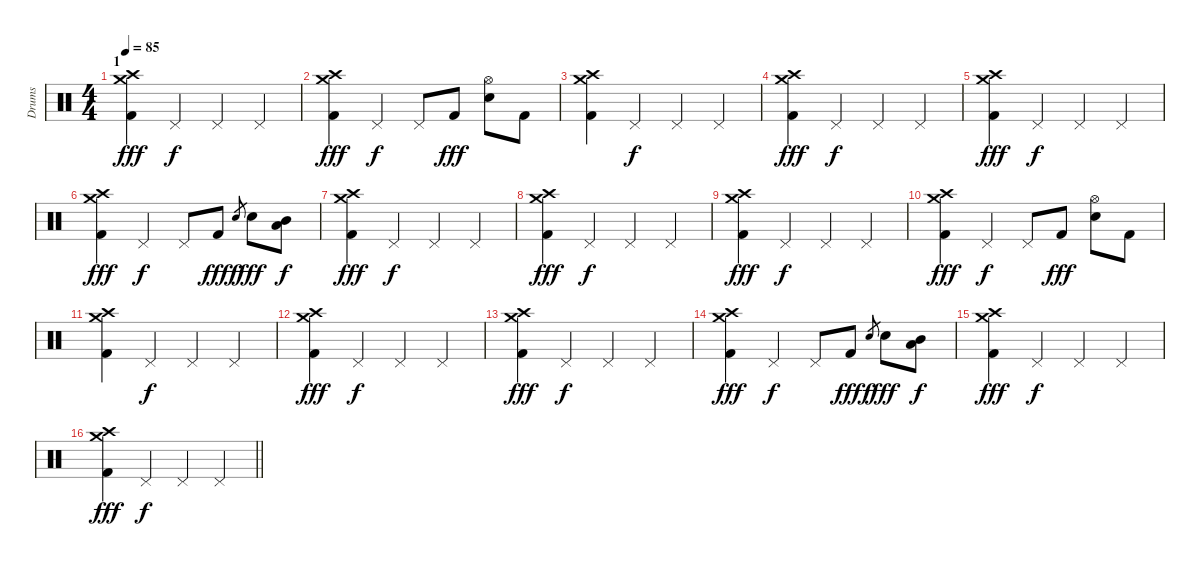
\track ("Drums" "Drums") {instrument percussion}
\staff {score}
\articulation defaults
\ts (4 4)
\section ("" "1")
\tempo 85
\clef neutral
\ks c
("Crash high (hit)" "Crash medium (hit)" "Kick (hit) 2").4{dy fff} "Pedal Hi-Hat (hit)".4{dy f} "Pedal Hi-Hat (hit)".4 "Pedal Hi-Hat (hit)".4 |
("Crash high (hit)" "Crash medium (hit)" "Kick (hit) 2").4{dy fff} "Pedal Hi-Hat (hit)".4{dy f} "Pedal Hi-Hat (hit)".8 "Kick (hit) 2".8{dy fff} ("Hi-Hat (open)" "Snare (hit) 2").8 "Kick (hit) 2".8 |
("Crash high (hit)" "Crash medium (hit)" "Kick (hit) 2").4 "Pedal Hi-Hat (hit)".4{dy f} "Pedal Hi-Hat (hit)".4 "Pedal Hi-Hat (hit)".4 |
("Crash high (hit)" "Crash medium (hit)" "Kick (hit) 2").4{dy fff} "Pedal Hi-Hat (hit)".4{dy f} "Pedal Hi-Hat (hit)".4 "Pedal Hi-Hat (hit)".4 |
("Crash high (hit)" "Crash medium (hit)" "Kick (hit) 2").4{dy fff} "Pedal Hi-Hat (hit)".4{dy f} "Pedal Hi-Hat (hit)".4 "Pedal Hi-Hat (hit)".4 |
("Crash high (hit)" "Crash medium (hit)" "Kick (hit) 2").4{dy fff} "Pedal Hi-Hat (hit)".4{dy f} "Pedal Hi-Hat (hit)".8 "Kick (hit) 2".8{dy fff} "Snare (hit) 2".8{gr dy f} "Snare (hit) 2".8{dy fff} ("Mid Tom (hit)" "Low Floor Tom (hit)").8{dy f} |
("Crash high (hit)" "Crash medium (hit)" "Kick (hit) 2").4{dy fff} "Pedal Hi-Hat (hit)".4{dy f} "Pedal Hi-Hat (hit)".4 "Pedal Hi-Hat (hit)".4 |
("Crash high (hit)" "Crash medium (hit)" "Kick (hit) 2").4{dy fff} "Pedal Hi-Hat (hit)".4{dy f} "Pedal Hi-Hat (hit)".4 "Pedal Hi-Hat (hit)".4 |
("Crash high (hit)" "Crash medium (hit)" "Kick (hit) 2").4{dy fff} "Pedal Hi-Hat (hit)".4{dy f} "Pedal Hi-Hat (hit)".4 "Pedal Hi-Hat (hit)".4 |
("Crash high (hit)" "Crash medium (hit)" "Kick (hit) 2").4{dy fff} "Pedal Hi-Hat (hit)".4{dy f} "Pedal Hi-Hat (hit)".8 "Kick (hit) 2".8{dy fff} ("Hi-Hat (open)" "Snare (hit) 2").8 "Kick (hit) 2".8 |
("Crash high (hit)" "Crash medium (hit)" "Kick (hit) 2").4 "Pedal Hi-Hat (hit)".4{dy f} "Pedal Hi-Hat (hit)".4 "Pedal Hi-Hat (hit)".4 |
("Crash high (hit)" "Crash medium (hit)" "Kick (hit) 2").4{dy fff} "Pedal Hi-Hat (hit)".4{dy f} "Pedal Hi-Hat (hit)".4 "Pedal Hi-Hat (hit)".4 |
("Crash high (hit)" "Crash medium (hit)" "Kick (hit) 2").4{dy fff} "Pedal Hi-Hat (hit)".4{dy f} "Pedal Hi-Hat (hit)".4 "Pedal Hi-Hat (hit)".4 |
("Crash high (hit)" "Crash medium (hit)" "Kick (hit) 2").4{dy fff} "Pedal Hi-Hat (hit)".4{dy f} "Pedal Hi-Hat (hit)".8 "Kick (hit) 2".8{dy fff} "Snare (hit) 2".8{gr dy f} "Snare (hit) 2".8{dy fff} ("Mid Tom (hit)" "Low Floor Tom (hit)").8{dy f} |
("Crash high (hit)" "Crash medium (hit)" "Kick (hit) 2").4{dy fff} "Pedal Hi-Hat (hit)".4{dy f} "Pedal Hi-Hat (hit)".4 "Pedal Hi-Hat (hit)".4 |
\barLineRight lightlight
("Crash high (hit)" "Crash medium (hit)" "Kick (hit) 2").4{dy fff} "Pedal Hi-Hat (hit)".4{dy f} "Pedal Hi-Hat (hit)".4 "Pedal Hi-Hat (hit)".4
